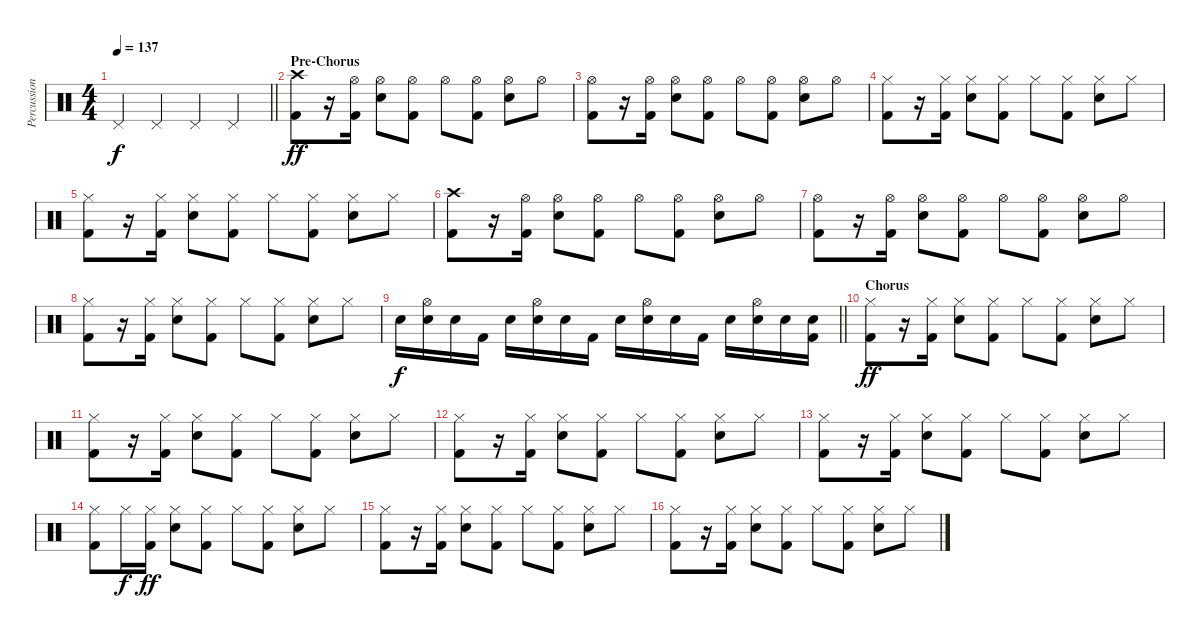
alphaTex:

\track ("Percussion" "Percussion") {instrument percussion}
\staff {score}
\articulation defaults
\ts (4 4)
\tempo 137
\clef neutral
\barLineRight lightlight
\ks c "Pedal Hi-Hat (hit)".4{dy f} "Pedal Hi-Hat (hit)".4 "Pedal Hi-Hat (hit)".4 "Pedal Hi-Hat (hit)".4
|
\section ("" "Pre-Chorus")
("Crash high (hit)" "Kick (hit) 2").8{dy ff} r.16 ("Hi-Hat (open)" "Kick (hit) 2").16 ("Hi-Hat (open)" "Electric Snare (hit)").8 ("Hi-Hat (open)" "Kick (hit) 2").8 "Hi-Hat (open)".8 ("Hi-Hat (open)" "Kick (hit) 2").8 ("Hi-Hat (open)" "Electric Snare (hit)").8 "Hi-Hat (open)".8 |
("Hi-Hat (open)" "Kick (hit) 2").8 r.16 ("Hi-Hat (open)" "Kick (hit) 2").16 ("Hi-Hat (open)" "Electric Snare (hit)").8 ("Hi-Hat (open)" "Kick (hit) 2").8 "Hi-Hat (open)".8 ("Hi-Hat (open)" "Kick (hit) 2").8 ("Hi-Hat (open)" "Electric Snare (hit)").8 "Hi-Hat (open)".8 |
("Hi-Hat (closed)" "Kick (hit) 2").8 r.16 ("Hi-Hat (closed)" "Kick (hit) 2").16 ("Hi-Hat (closed)" "Electric Snare (hit)").8 ("Hi-Hat (closed)" "Kick (hit) 2").8 "Hi-Hat (closed)".8 ("Hi-Hat (closed)" "Kick (hit) 2").8 ("Hi-Hat (closed)" "Electric Snare (hit)").8 "Hi-Hat (closed)".8 |
("Hi-Hat (closed)" "Kick (hit) 2").8 r.16 ("Hi-Hat (closed)" "Kick (hit) 2").16 ("Hi-Hat (closed)" "Electric Snare (hit)").8 ("Hi-Hat (closed)" "Kick (hit) 2").8 "Hi-Hat (closed)".8 ("Hi-Hat (closed)" "Kick (hit) 2").8 ("Hi-Hat (closed)" "Electric Snare (hit)").8 "Hi-Hat (closed)".8 |
("Crash high (hit)" "Kick (hit) 2").8 r.16 ("Hi-Hat (open)" "Kick (hit) 2").16 ("Hi-Hat (open)" "Electric Snare (hit)").8 ("Hi-Hat (open)" "Kick (hit) 2").8 "Hi-Hat (open)".8 ("Hi-Hat (open)" "Kick (hit) 2").8 ("Hi-Hat (open)" "Electric Snare (hit)").8 "Hi-Hat (open)".8 |
("Hi-Hat (open)" "Kick (hit) 2").8 r.16 ("Hi-Hat (open)" "Kick (hit) 2").16 ("Hi-Hat (open)" "Electric Snare (hit)").8 ("Hi-Hat (open)" "Kick (hit) 2").8 "Hi-Hat (open)".8 ("Hi-Hat (open)" "Kick (hit) 2").8 ("Hi-Hat (open)" "Electric Snare (hit)").8 "Hi-Hat (open)".8 |
("Hi-Hat (closed)" "Kick (hit) 2").8 r.16 ("Hi-Hat (closed)" "Kick (hit) 2").16 ("Hi-Hat (closed)" "Electric Snare (hit)").8 ("Hi-Hat (closed)" "Kick (hit) 2").8 "Hi-Hat (closed)".8 ("Hi-Hat (closed)" "Kick (hit) 2").8 ("Hi-Hat (closed)" "Electric Snare (hit)").8 "Hi-Hat (closed)".8 |
\barLineRight lightlight "Electric Snare (hit)".16{dy f}
("Hi-Hat (open)" "Electric Snare (hit)").16 "Electric Snare (hit)".16 "Kick (hit) 2".16 "Electric Snare (hit)".16 ("Hi-Hat (open)" "Electric Snare (hit)").16 "Electric Snare (hit)".16 "Kick (hit) 2".16 "Electric Snare (hit)".16 ("Hi-Hat (open)" "Electric Snare (hit)").16 "Electric Snare (hit)".16 "Kick (hit) 2".16 "Electric Snare (hit)".16 ("Hi-Hat (open)" "Electric Snare (hit)").16 "Electric Snare (hit)".16 ("Electric Snare (hit)" "Kick (hit) 2").16 |
\section ("" "Chorus")
("Hi-Hat (closed)" "Kick (hit) 2").8{dy ff} r.16 ("Hi-Hat (closed)" "Kick (hit) 2").16 ("Hi-Hat (closed)" "Electric Snare (hit)").8 ("Hi-Hat (closed)" "Kick (hit) 2").8 "Hi-Hat (closed)".8 ("Hi-Hat (closed)" "Kick (hit) 2").8 ("Hi-Hat (closed)" "Electric Snare (hit)").8 "Hi-Hat (closed)".8 |
("Hi-Hat (closed)" "Kick (hit) 2").8 r.16 ("Hi-Hat (closed)" "Kick (hit) 2").16 ("Hi-Hat (closed)" "Electric Snare (hit)").8 ("Hi-Hat (closed)" "Kick (hit) 2").8 "Hi-Hat (closed)".8 ("Hi-Hat (closed)" "Kick (hit) 2").8 ("Hi-Hat (closed)" "Electric Snare (hit)").8 "Hi-Hat (closed)".8 |
("Hi-Hat (closed)" "Kick (hit) 2").8 r.16 ("Hi-Hat (closed)" "Kick (hit) 2").16 ("Hi-Hat (closed)" "Electric Snare (hit)").8 ("Hi-Hat (closed)" "Kick (hit) 2").8 "Hi-Hat (closed)".8 ("Hi-Hat (closed)" "Kick (hit) 2").8 ("Hi-Hat (closed)" "Electric Snare (hit)").8 "Hi-Hat (closed)".8 |
("Hi-Hat (closed)" "Kick (hit) 2").8 r.16 ("Hi-Hat (closed)" "Kick (hit) 2").16 ("Hi-Hat (closed)" "Electric Snare (hit)").8 ("Hi-Hat (closed)" "Kick (hit) 2").8 "Hi-Hat (closed)".8 ("Hi-Hat (closed)" "Kick (hit) 2").8 ("Hi-Hat (closed)" "Electric Snare (hit)").8 "Hi-Hat (closed)".8 |
("Hi-Hat (closed)" "Kick (hit) 2").8 "Hi-Hat (closed)".16{dy f} ("Hi-Hat (closed)" "Kick (hit) 2").16{dy ff} ("Hi-Hat (closed)" "Electric Snare (hit)").8 ("Hi-Hat (closed)" "Kick (hit) 2").8 "Hi-Hat (closed)".8 ("Hi-Hat (closed)" "Kick (hit) 2").8 ("Hi-Hat (closed)" "Electric Snare (hit)").8 "Hi-Hat (closed)".8 |
("Hi-Hat (closed)" "Kick (hit) 2").8 r.16 ("Hi-Hat (closed)" "Kick (hit) 2").16 ("Hi-Hat (closed)" "Electric Snare (hit)").8 ("Hi-Hat (closed)" "Kick (hit) 2").8 "Hi-Hat (closed)".8 ("Hi-Hat (closed)" "Kick (hit) 2").8 ("Hi-Hat (closed)" "Electric Snare (hit)").8 "Hi-Hat (closed)".8 |
("Hi-Hat (closed)" "Kick (hit) 2").8 r.16 ("Hi-Hat (closed)" "Kick (hit) 2").16 ("Hi-Hat (closed)" "Electric Snare (hit)").8 ("Hi-Hat (closed)" "Kick (hit) 2").8 "Hi-Hat (closed)".8 ("Hi-Hat (closed)" "Kick (hit) 2").8 ("Hi-Hat (closed)" "Electric Snare (hit)").8 "Hi-Hat (closed)".8
